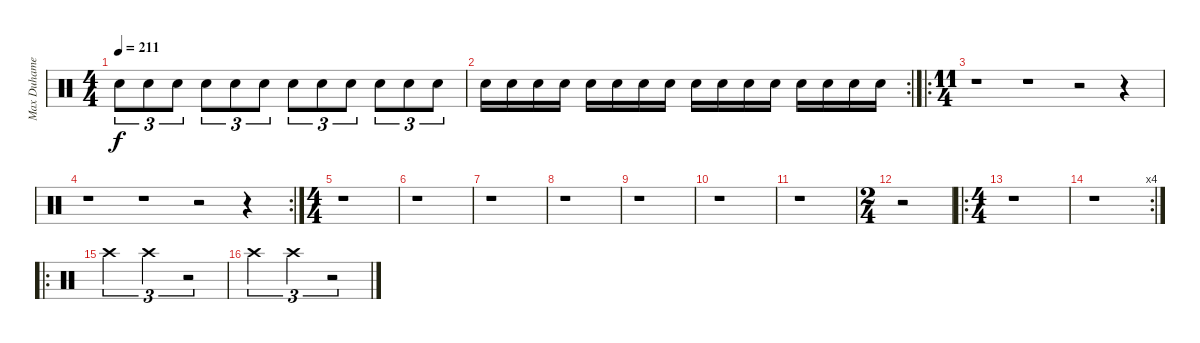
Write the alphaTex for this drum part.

\track ("Max Duhamel" "Max Duhame") {instrument percussion}
\staff {score}
\articulation defaults
\ts (4 4)
\tempo 211
\clef neutral
\ks c "Electric Snare (hit)".8{tu (3 2) dy f} "Electric Snare (hit)".8{tu (3 2)} "Electric Snare (hit)".8{tu (3 2)} "Electric Snare (hit)".8{tu (3 2)} "Electric Snare (hit)".8{tu (3 2)} "Electric Snare (hit)".8{tu (3 2)} "Electric Snare (hit)".8{tu (3 2)} "Electric Snare (hit)".8{tu (3 2)} "Electric Snare (hit)".8{tu (3 2)} "Electric Snare (hit)".8{tu (3 2)} "Electric Snare (hit)".8{tu (3 2)} "Electric Snare (hit)".8{tu (3 2)}
|
\rc 2 "Electric Snare (hit)".16 "Electric Snare (hit)".16 "Electric Snare (hit)".16 "Electric Snare (hit)".16 "Electric Snare (hit)".16 "Electric Snare (hit)".16 "Electric Snare (hit)".16 "Electric Snare (hit)".16 "Electric Snare (hit)".16 "Electric Snare (hit)".16 "Electric Snare (hit)".16 "Electric Snare (hit)".16 "Electric Snare (hit)".16 "Electric Snare (hit)".16 "Electric Snare (hit)".16 "Electric Snare (hit)".16
|
\ro
\ts (11 4)
r.1 r.1 r.2 r.4 |
\rc 2
r.1 r.1 r.2 r.4 |
\ts (4 4)
r.1 |
r.1 |
r.1 |
r.1 |
r.1 |
r.1 |
r.1 |
\ts (2 4)
r.2 |
\ro
\ts (4 4)
r.1 |
\rc 4
r.1 |
\ro "Crash high (hit)".2{tu (3 2)} "Crash high (hit)".2{tu (3 2)}
r.2{tu (3 2)} |
"Crash high (hit)".2{tu (3 2)} "Crash high (hit)".2{tu (3 2)} r.2{tu (3 2)}
